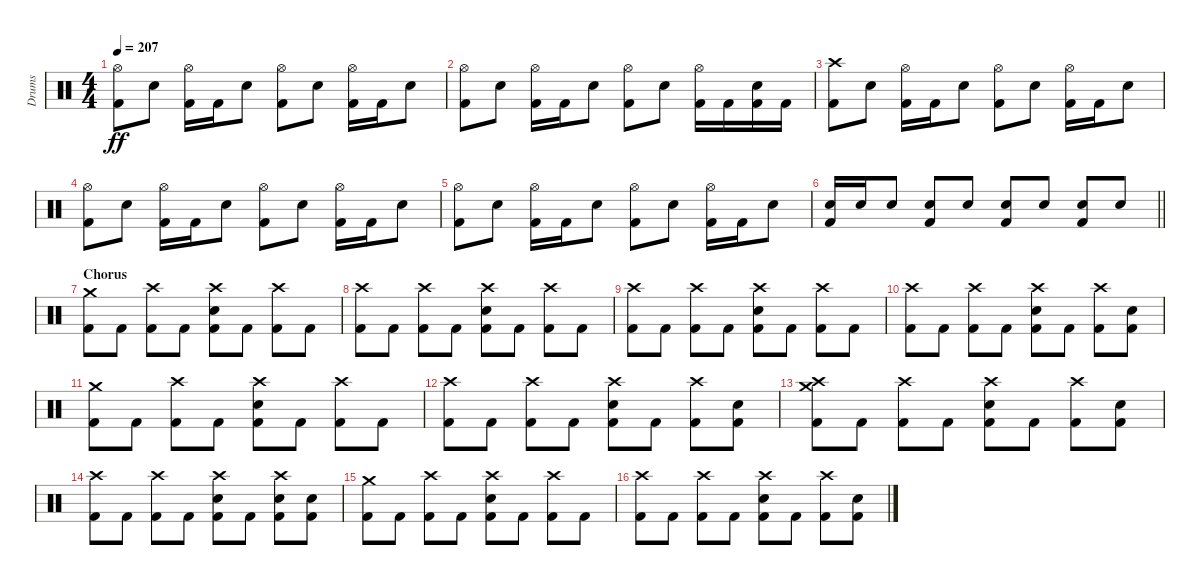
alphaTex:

\track ("Drums" "Drums") {instrument percussion}
\staff {score}
\articulation defaults
\ts (4 4)
\tempo 207
\clef neutral
\ks c
("Hi-Hat (open)" "Kick (hit) 2").8{dy ff} "Snare (hit) 2".8 ("Hi-Hat (open)" "Kick (hit) 2").16 "Kick (hit) 2".16 "Snare (hit) 2".8 ("Hi-Hat (open)" "Kick (hit) 2").8 "Snare (hit) 2".8 ("Hi-Hat (open)" "Kick (hit) 2").16 "Kick (hit) 2".16 "Snare (hit) 2".8 |
("Hi-Hat (open)" "Kick (hit) 2").8 "Snare (hit) 2".8 ("Hi-Hat (open)" "Kick (hit) 2").16 "Kick (hit) 2".16 "Snare (hit) 2".8 ("Hi-Hat (open)" "Kick (hit) 2").8 "Snare (hit) 2".8 ("Hi-Hat (open)" "Kick (hit) 2").16 "Kick (hit) 2".16 ("Snare (hit) 2" "Kick (hit) 2").16 "Kick (hit) 2".16 |
("Crash high (hit)" "Kick (hit) 2").8 "Snare (hit) 2".8 ("Hi-Hat (open)" "Kick (hit) 2").16 "Kick (hit) 2".16 "Snare (hit) 2".8 ("Hi-Hat (open)" "Kick (hit) 2").8 "Snare (hit) 2".8 ("Hi-Hat (open)" "Kick (hit) 2").16 "Kick (hit) 2".16 "Snare (hit) 2".8 |
("Hi-Hat (open)" "Kick (hit) 2").8 "Snare (hit) 2".8 ("Hi-Hat (open)" "Kick (hit) 2").16 "Kick (hit) 2".16 "Snare (hit) 2".8 ("Hi-Hat (open)" "Kick (hit) 2").8 "Snare (hit) 2".8 ("Hi-Hat (open)" "Kick (hit) 2").16 "Kick (hit) 2".16 "Snare (hit) 2".8 |
("Hi-Hat (open)" "Kick (hit) 2").8 "Snare (hit) 2".8 ("Hi-Hat (open)" "Kick (hit) 2").16 "Kick (hit) 2".16 "Snare (hit) 2".8 ("Hi-Hat (open)" "Kick (hit) 2").8 "Snare (hit) 2".8 ("Hi-Hat (open)" "Kick (hit) 2").16 "Kick (hit) 2".16 "Snare (hit) 2".8 |
\barLineRight lightlight
("Snare (hit) 2" "Kick (hit) 2").16 "Snare (hit) 2".16 "Snare (hit) 2".8 ("Snare (hit) 2" "Kick (hit) 2").8 "Snare (hit) 2".8 ("Snare (hit) 2" "Kick (hit) 2").8 "Snare (hit) 2".8 ("Snare (hit) 2" "Kick (hit) 2").8 "Snare (hit) 2".8 |
\section ("" "Chorus")
("Crash medium (hit)" "Kick (hit) 2").8 "Kick (hit) 2".8 ("Crash high (hit)" "Kick (hit) 2").8 "Kick (hit) 2".8 ("Crash high (hit)" "Snare (hit) 2" "Kick (hit) 2").8 "Kick (hit) 2".8 ("Crash high (hit)" "Kick (hit) 2").8 "Kick (hit) 2".8 |
("Crash high (hit)" "Kick (hit) 2").8 "Kick (hit) 2".8 ("Crash high (hit)" "Kick (hit) 2").8 "Kick (hit) 2".8 ("Crash high (hit)" "Snare (hit) 2" "Kick (hit) 2").8 "Kick (hit) 2".8 ("Crash high (hit)" "Kick (hit) 2").8 "Kick (hit) 2".8 |
("Crash high (hit)" "Kick (hit) 2").8 "Kick (hit) 2".8 ("Crash high (hit)" "Kick (hit) 2").8 "Kick (hit) 2".8 ("Crash high (hit)" "Snare (hit) 2" "Kick (hit) 2").8 "Kick (hit) 2".8 ("Crash high (hit)" "Kick (hit) 2").8 "Kick (hit) 2".8 |
("Crash high (hit)" "Kick (hit) 2").8 "Kick (hit) 2".8 ("Crash high (hit)" "Kick (hit) 2").8 "Kick (hit) 2".8 ("Crash high (hit)" "Snare (hit) 2" "Kick (hit) 2").8 "Kick (hit) 2".8 ("Crash high (hit)" "Kick (hit) 2").8 ("Snare (hit) 2" "Kick (hit) 2").8 |
("Crash medium (hit)" "Kick (hit) 2").8 "Kick (hit) 2".8 ("Crash high (hit)" "Kick (hit) 2").8 "Kick (hit) 2".8 ("Crash high (hit)" "Snare (hit) 2" "Kick (hit) 2").8 "Kick (hit) 2".8 ("Crash high (hit)" "Kick (hit) 2").8 "Kick (hit) 2".8 |
("Crash high (hit)" "Kick (hit) 2").8 "Kick (hit) 2".8 ("Crash high (hit)" "Kick (hit) 2").8 "Kick (hit) 2".8 ("Crash high (hit)" "Snare (hit) 2" "Kick (hit) 2").8 "Kick (hit) 2".8 ("Crash high (hit)" "Kick (hit) 2").8 ("Snare (hit) 2" "Kick (hit) 2").8 |
("Crash medium (hit)" "Crash high (hit)" "Kick (hit) 2").8 "Kick (hit) 2".8 ("Crash high (hit)" "Kick (hit) 2").8 "Kick (hit) 2".8 ("Crash high (hit)" "Snare (hit) 2" "Kick (hit) 2").8 "Kick (hit) 2".8 ("Crash high (hit)" "Kick (hit) 2").8 ("Snare (hit) 2" "Kick (hit) 2").8 |
("Crash high (hit)" "Kick (hit) 2").8 "Kick (hit) 2".8 ("Crash high (hit)" "Kick (hit) 2").8 "Kick (hit) 2".8 ("Crash high (hit)" "Snare (hit) 2" "Kick (hit) 2").8 "Kick (hit) 2".8 ("Crash high (hit)" "Snare (hit) 2" "Kick (hit) 2").8 ("Snare (hit) 2" "Kick (hit) 2").8 |
("Crash medium (hit)" "Kick (hit) 2").8 "Kick (hit) 2".8 ("Crash high (hit)" "Kick (hit) 2").8 "Kick (hit) 2".8 ("Crash high (hit)" "Snare (hit) 2" "Kick (hit) 2").8 "Kick (hit) 2".8 ("Crash high (hit)" "Kick (hit) 2").8 "Kick (hit) 2".8 |
("Crash high (hit)" "Kick (hit) 2").8 "Kick (hit) 2".8 ("Crash high (hit)" "Kick (hit) 2").8 "Kick (hit) 2".8 ("Crash high (hit)" "Snare (hit) 2" "Kick (hit) 2").8 "Kick (hit) 2".8 ("Crash high (hit)" "Kick (hit) 2").8 ("Snare (hit) 2" "Kick (hit) 2").8
